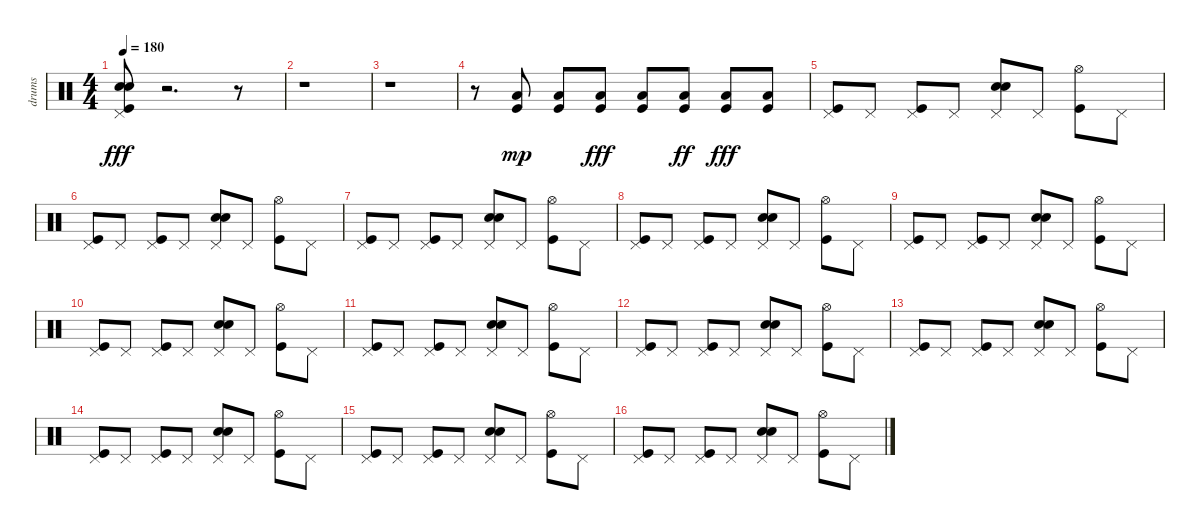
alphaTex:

\track ("drums" "drums") {instrument percussion}
\staff {score}
\articulation defaults
\ts (4 4)
\tempo 180
\clef neutral
\ks c
("Electric Snare (hit)" "Snare (hit) 2" "Kick (hit)" "Pedal Hi-Hat (hit)").8{dy fff} r.2{d} r.8 |
r.1 |
r.1 |
r.8 ("Kick (hit)" "Low Floor Tom (hit)").8{dy mp} ("Kick (hit)" "Low Floor Tom (hit)").8 ("Kick (hit)" "Low Floor Tom (hit)").8{dy fff} ("Kick (hit)" "Low Floor Tom (hit)").8 ("Kick (hit)" "Low Floor Tom (hit)").8{dy ff} ("Kick (hit)" "Low Floor Tom (hit)").8{dy fff} ("Kick (hit)" "Low Floor Tom (hit)").8 |
("Pedal Hi-Hat (hit)" "Kick (hit)").8 "Pedal Hi-Hat (hit)".8 ("Kick (hit)" "Pedal Hi-Hat (hit)").8 "Pedal Hi-Hat (hit)".8 ("Snare (hit) 2" "Electric Snare (hit)" "Pedal Hi-Hat (hit)").8 "Pedal Hi-Hat (hit)".8 ("Hi-Hat (open)" "Kick (hit)").8 "Pedal Hi-Hat (hit)".8 |
("Kick (hit)" "Pedal Hi-Hat (hit)").8 "Pedal Hi-Hat (hit)".8 ("Kick (hit)" "Pedal Hi-Hat (hit)").8 "Pedal Hi-Hat (hit)".8 ("Snare (hit) 2" "Electric Snare (hit)" "Pedal Hi-Hat (hit)").8 "Pedal Hi-Hat (hit)".8 ("Hi-Hat (open)" "Kick (hit)").8 "Pedal Hi-Hat (hit)".8 |
("Kick (hit)" "Pedal Hi-Hat (hit)").8 "Pedal Hi-Hat (hit)".8 ("Kick (hit)" "Pedal Hi-Hat (hit)").8 "Pedal Hi-Hat (hit)".8 ("Snare (hit) 2" "Electric Snare (hit)" "Pedal Hi-Hat (hit)").8 "Pedal Hi-Hat (hit)".8 ("Hi-Hat (open)" "Kick (hit)").8 "Pedal Hi-Hat (hit)".8 |
("Kick (hit)" "Pedal Hi-Hat (hit)").8 "Pedal Hi-Hat (hit)".8 ("Kick (hit)" "Pedal Hi-Hat (hit)").8 "Pedal Hi-Hat (hit)".8 ("Snare (hit) 2" "Electric Snare (hit)" "Pedal Hi-Hat (hit)").8 "Pedal Hi-Hat (hit)".8 ("Hi-Hat (open)" "Kick (hit)").8 "Pedal Hi-Hat (hit)".8 |
("Kick (hit)" "Pedal Hi-Hat (hit)").8 "Pedal Hi-Hat (hit)".8 ("Kick (hit)" "Pedal Hi-Hat (hit)").8 "Pedal Hi-Hat (hit)".8 ("Snare (hit) 2" "Electric Snare (hit)" "Pedal Hi-Hat (hit)").8 "Pedal Hi-Hat (hit)".8 ("Hi-Hat (open)" "Kick (hit)").8 "Pedal Hi-Hat (hit)".8 |
("Kick (hit)" "Pedal Hi-Hat (hit)").8 "Pedal Hi-Hat (hit)".8 ("Kick (hit)" "Pedal Hi-Hat (hit)").8 "Pedal Hi-Hat (hit)".8 ("Snare (hit) 2" "Electric Snare (hit)" "Pedal Hi-Hat (hit)").8 "Pedal Hi-Hat (hit)".8 ("Hi-Hat (open)" "Kick (hit)").8 "Pedal Hi-Hat (hit)".8 |
("Kick (hit)" "Pedal Hi-Hat (hit)").8 "Pedal Hi-Hat (hit)".8 ("Kick (hit)" "Pedal Hi-Hat (hit)").8 "Pedal Hi-Hat (hit)".8 ("Snare (hit) 2" "Electric Snare (hit)" "Pedal Hi-Hat (hit)").8 "Pedal Hi-Hat (hit)".8 ("Hi-Hat (open)" "Kick (hit)").8 "Pedal Hi-Hat (hit)".8 |
("Kick (hit)" "Pedal Hi-Hat (hit)").8 "Pedal Hi-Hat (hit)".8 ("Kick (hit)" "Pedal Hi-Hat (hit)").8 "Pedal Hi-Hat (hit)".8 ("Snare (hit) 2" "Electric Snare (hit)" "Pedal Hi-Hat (hit)").8 "Pedal Hi-Hat (hit)".8 ("Hi-Hat (open)" "Kick (hit)").8 "Pedal Hi-Hat (hit)".8 |
("Pedal Hi-Hat (hit)" "Kick (hit)").8 "Pedal Hi-Hat (hit)".8 ("Kick (hit)" "Pedal Hi-Hat (hit)").8 "Pedal Hi-Hat (hit)".8 ("Snare (hit) 2" "Electric Snare (hit)" "Pedal Hi-Hat (hit)").8 "Pedal Hi-Hat (hit)".8 ("Hi-Hat (open)" "Kick (hit)").8 "Pedal Hi-Hat (hit)".8 |
("Kick (hit)" "Pedal Hi-Hat (hit)").8 "Pedal Hi-Hat (hit)".8 ("Kick (hit)" "Pedal Hi-Hat (hit)").8 "Pedal Hi-Hat (hit)".8 ("Snare (hit) 2" "Electric Snare (hit)" "Pedal Hi-Hat (hit)").8 "Pedal Hi-Hat (hit)".8 ("Hi-Hat (open)" "Kick (hit)").8 "Pedal Hi-Hat (hit)".8 |
("Kick (hit)" "Pedal Hi-Hat (hit)").8 "Pedal Hi-Hat (hit)".8 ("Kick (hit)" "Pedal Hi-Hat (hit)").8 "Pedal Hi-Hat (hit)".8 ("Snare (hit) 2" "Electric Snare (hit)" "Pedal Hi-Hat (hit)").8 "Pedal Hi-Hat (hit)".8 ("Hi-Hat (open)" "Kick (hit)").8 "Pedal Hi-Hat (hit)".8 |
("Kick (hit)" "Pedal Hi-Hat (hit)").8 "Pedal Hi-Hat (hit)".8 ("Kick (hit)" "Pedal Hi-Hat (hit)").8 "Pedal Hi-Hat (hit)".8 ("Snare (hit) 2" "Electric Snare (hit)" "Pedal Hi-Hat (hit)").8 "Pedal Hi-Hat (hit)".8 ("Hi-Hat (open)" "Kick (hit)").8 "Pedal Hi-Hat (hit)".8
